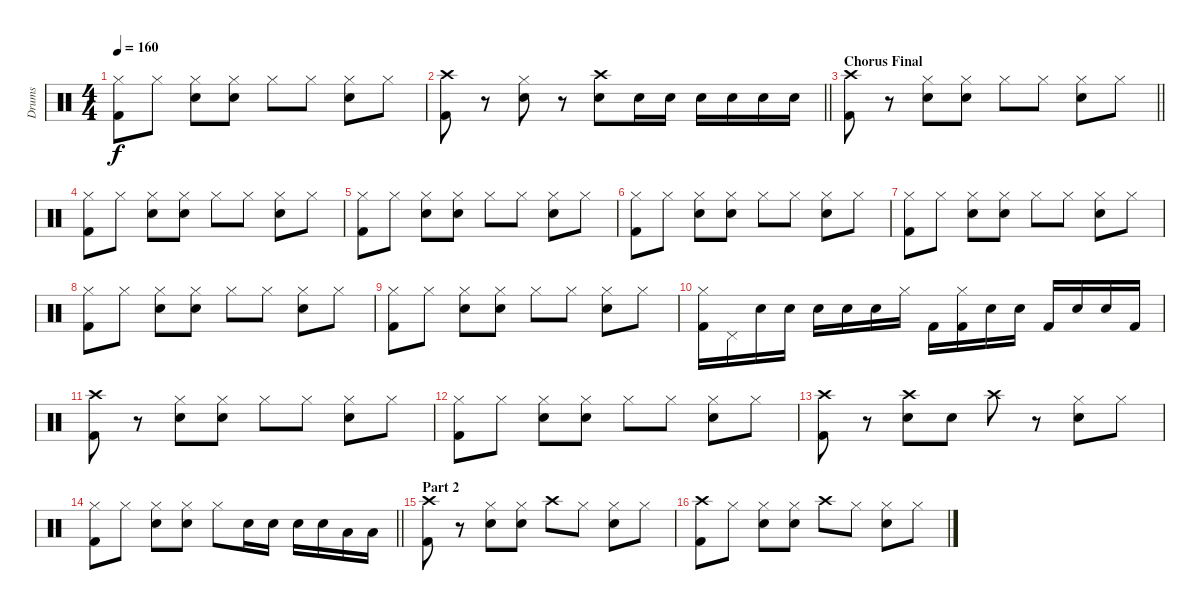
\track ("Drums" "Drums") {instrument percussion}
\staff {score}
\articulation defaults
\ts (4 4)
\tempo 160
\clef neutral
\ks c
("Hi-Hat (closed)" "Kick (hit) 2").8{dy f} "Hi-Hat (closed)".8 ("Hi-Hat (closed)" "Electric Snare (hit)").8 ("Hi-Hat (closed)" "Electric Snare (hit)").8 "Hi-Hat (closed)".8 "Hi-Hat (closed)".8 ("Hi-Hat (closed)" "Electric Snare (hit)").8 "Hi-Hat (closed)".8 |
\barLineRight lightlight
("Crash high (hit)" "Kick (hit) 2").8 r.8 ("Hi-Hat (closed)" "Electric Snare (hit)").8 r.8 ("Crash high (hit)" "Electric Snare (hit)").8 "Electric Snare (hit)".16 "Electric Snare (hit)".16 "Electric Snare (hit)".16 "Electric Snare (hit)".16 "Electric Snare (hit)".16 "Electric Snare (hit)".16 |
\section ("" "Chorus Final")
\barLineRight lightlight
("Crash high (hit)" "Kick (hit) 2").8 r.8 ("Hi-Hat (closed)" "Electric Snare (hit)").8 ("Hi-Hat (closed)" "Electric Snare (hit)").8 "Hi-Hat (closed)".8 "Hi-Hat (closed)".8 ("Hi-Hat (closed)" "Electric Snare (hit)").8 "Hi-Hat (closed)".8 |
("Hi-Hat (closed)" "Kick (hit) 2").8 "Hi-Hat (closed)".8 ("Hi-Hat (closed)" "Electric Snare (hit)").8 ("Hi-Hat (closed)" "Electric Snare (hit)").8 "Hi-Hat (closed)".8 "Hi-Hat (closed)".8 ("Hi-Hat (closed)" "Electric Snare (hit)").8 "Hi-Hat (closed)".8 |
("Hi-Hat (closed)" "Kick (hit) 2").8 "Hi-Hat (closed)".8 ("Hi-Hat (closed)" "Electric Snare (hit)").8 ("Hi-Hat (closed)" "Electric Snare (hit)").8 "Hi-Hat (closed)".8 "Hi-Hat (closed)".8 ("Hi-Hat (closed)" "Electric Snare (hit)").8 "Hi-Hat (closed)".8 |
("Hi-Hat (closed)" "Kick (hit) 2").8 "Hi-Hat (closed)".8 ("Hi-Hat (closed)" "Electric Snare (hit)").8 ("Hi-Hat (closed)" "Electric Snare (hit)").8 "Hi-Hat (closed)".8 "Hi-Hat (closed)".8 ("Hi-Hat (closed)" "Electric Snare (hit)").8 "Hi-Hat (closed)".8 |
("Hi-Hat (closed)" "Kick (hit) 2").8 "Hi-Hat (closed)".8 ("Hi-Hat (closed)" "Electric Snare (hit)").8 ("Hi-Hat (closed)" "Electric Snare (hit)").8 "Hi-Hat (closed)".8 "Hi-Hat (closed)".8 ("Hi-Hat (closed)" "Electric Snare (hit)").8 "Hi-Hat (closed)".8 |
("Hi-Hat (closed)" "Kick (hit) 2").8 "Hi-Hat (closed)".8 ("Hi-Hat (closed)" "Electric Snare (hit)").8 ("Hi-Hat (closed)" "Electric Snare (hit)").8 "Hi-Hat (closed)".8 "Hi-Hat (closed)".8 ("Hi-Hat (closed)" "Electric Snare (hit)").8 "Hi-Hat (closed)".8 |
("Hi-Hat (closed)" "Kick (hit) 2").8 "Hi-Hat (closed)".8 ("Hi-Hat (closed)" "Electric Snare (hit)").8 ("Hi-Hat (closed)" "Electric Snare (hit)").8 "Hi-Hat (closed)".8 "Hi-Hat (closed)".8 ("Hi-Hat (closed)" "Electric Snare (hit)").8 "Hi-Hat (closed)".8 |
("Hi-Hat (closed)" "Kick (hit) 2").16 "Pedal Hi-Hat (hit)".16 "Electric Snare (hit)".16 "Electric Snare (hit)".16 "Electric Snare (hit)".16 "Electric Snare (hit)".16 "Electric Snare (hit)".16 "Hi-Hat (closed)".16 "Kick (hit) 2".16 ("Hi-Hat (closed)" "Kick (hit) 2").16 "Electric Snare (hit)".16 "Electric Snare (hit)".16 "Kick (hit) 2".16 "Electric Snare (hit)".16 "Electric Snare (hit)".16 "Kick (hit) 2".16 |
("Crash high (hit)" "Kick (hit) 2").8 r.8 ("Hi-Hat (closed)" "Electric Snare (hit)").8 ("Hi-Hat (closed)" "Electric Snare (hit)").8 "Hi-Hat (closed)".8 "Hi-Hat (closed)".8 ("Hi-Hat (closed)" "Electric Snare (hit)").8 "Hi-Hat (closed)".8 |
("Hi-Hat (closed)" "Kick (hit) 2").8 "Hi-Hat (closed)".8 ("Hi-Hat (closed)" "Electric Snare (hit)").8 ("Hi-Hat (closed)" "Electric Snare (hit)").8 "Hi-Hat (closed)".8 "Hi-Hat (closed)".8 ("Hi-Hat (closed)" "Electric Snare (hit)").8 "Hi-Hat (closed)".8 |
("Crash high (hit)" "Kick (hit) 2").8 r.8 ("Crash high (hit)" "Electric Snare (hit)").8 "Electric Snare (hit)".8 "Crash high (hit)".8 r.8 ("Hi-Hat (closed)" "Electric Snare (hit)").8 "Hi-Hat (closed)".8 |
\barLineRight lightlight
("Hi-Hat (closed)" "Kick (hit) 2").8 "Hi-Hat (closed)".8 ("Hi-Hat (closed)" "Electric Snare (hit)").8 ("Hi-Hat (closed)" "Electric Snare (hit)").8 "Hi-Hat (closed)".8 "Electric Snare (hit)".16 "Electric Snare (hit)".16 "Electric Snare (hit)".16 "Electric Snare (hit)".16 "Low Tom (hit)".16 "Low Tom (hit)".16 |
\section ("" "Part 2")
("Crash high (hit)" "Kick (hit) 2").8 r.8 ("Hi-Hat (closed)" "Electric Snare (hit)").8 ("Hi-Hat (closed)" "Electric Snare (hit)").8 "Crash high (hit)".8 "Hi-Hat (closed)".8 ("Hi-Hat (closed)" "Electric Snare (hit)").8 "Hi-Hat (closed)".8 |
("Crash high (hit)" "Kick (hit) 2").8 "Hi-Hat (closed)".8 ("Hi-Hat (closed)" "Electric Snare (hit)").8 ("Hi-Hat (closed)" "Electric Snare (hit)").8 "Crash high (hit)".8 "Hi-Hat (closed)".8 ("Hi-Hat (closed)" "Electric Snare (hit)").8 "Hi-Hat (closed)".8
